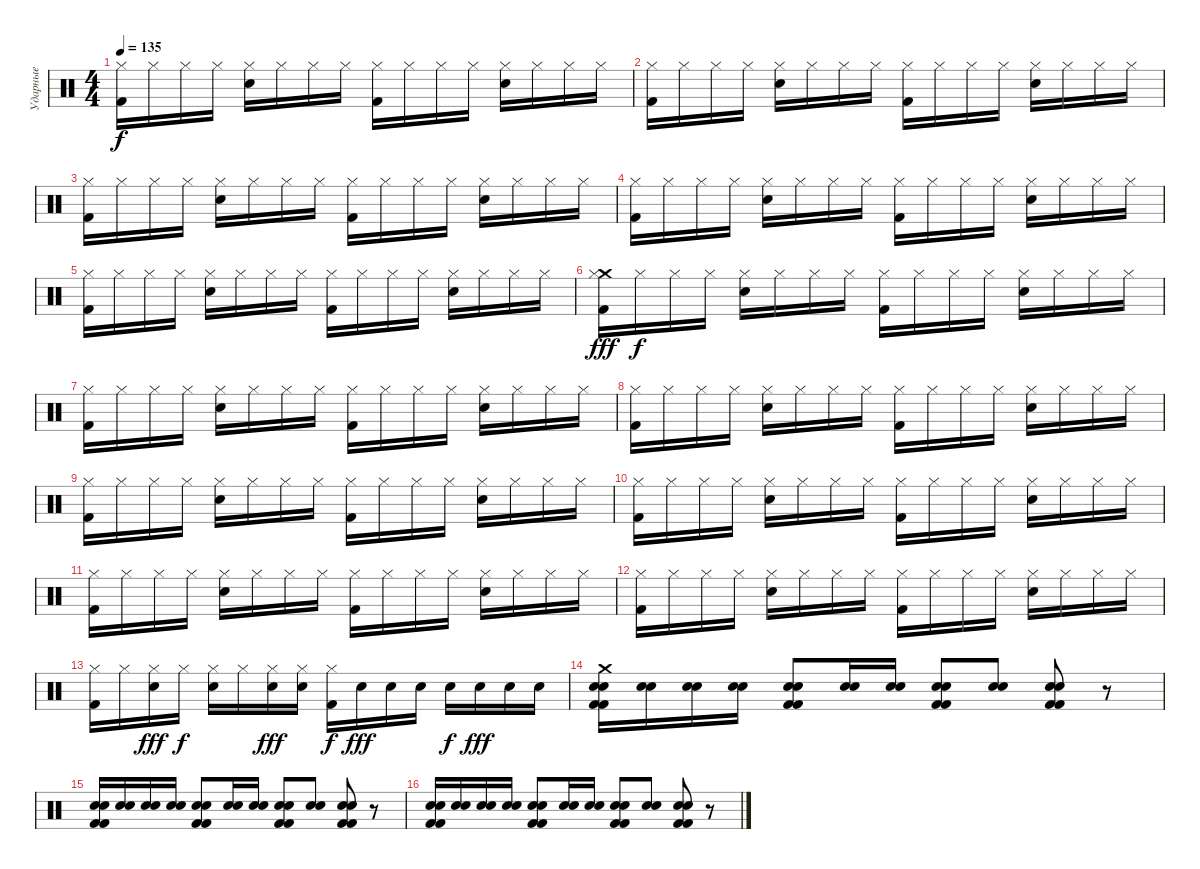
\track ("Ударные" "Ударные") {instrument percussion}
\staff {score}
\articulation defaults
\ts (4 4)
\tempo 135
\clef neutral
\ks c
("Hi-Hat (closed)" "Kick (hit) 2").16{dy f} "Hi-Hat (closed)".16 "Hi-Hat (closed)".16 "Hi-Hat (closed)".16 ("Hi-Hat (closed)" "Snare (hit) 2").16 "Hi-Hat (closed)".16 "Hi-Hat (closed)".16 "Hi-Hat (closed)".16 ("Hi-Hat (closed)" "Kick (hit) 2").16 "Hi-Hat (closed)".16 "Hi-Hat (closed)".16 "Hi-Hat (closed)".16 ("Hi-Hat (closed)" "Snare (hit) 2").16 "Hi-Hat (closed)".16 "Hi-Hat (closed)".16 "Hi-Hat (closed)".16 |
("Hi-Hat (closed)" "Kick (hit) 2").16 "Hi-Hat (closed)".16 "Hi-Hat (closed)".16 "Hi-Hat (closed)".16 ("Hi-Hat (closed)" "Snare (hit) 2").16 "Hi-Hat (closed)".16 "Hi-Hat (closed)".16 "Hi-Hat (closed)".16 ("Hi-Hat (closed)" "Kick (hit) 2").16 "Hi-Hat (closed)".16 "Hi-Hat (closed)".16 "Hi-Hat (closed)".16 ("Hi-Hat (closed)" "Snare (hit) 2").16 "Hi-Hat (closed)".16 "Hi-Hat (closed)".16 "Hi-Hat (closed)".16 |
("Hi-Hat (closed)" "Kick (hit) 2").16 "Hi-Hat (closed)".16 "Hi-Hat (closed)".16 "Hi-Hat (closed)".16 ("Hi-Hat (closed)" "Snare (hit) 2").16 "Hi-Hat (closed)".16 "Hi-Hat (closed)".16 "Hi-Hat (closed)".16 ("Hi-Hat (closed)" "Kick (hit) 2").16 "Hi-Hat (closed)".16 "Hi-Hat (closed)".16 "Hi-Hat (closed)".16 ("Hi-Hat (closed)" "Snare (hit) 2").16 "Hi-Hat (closed)".16 "Hi-Hat (closed)".16 "Hi-Hat (closed)".16 |
("Hi-Hat (closed)" "Kick (hit) 2").16 "Hi-Hat (closed)".16 "Hi-Hat (closed)".16 "Hi-Hat (closed)".16 ("Hi-Hat (closed)" "Snare (hit) 2").16 "Hi-Hat (closed)".16 "Hi-Hat (closed)".16 "Hi-Hat (closed)".16 ("Hi-Hat (closed)" "Kick (hit) 2").16 "Hi-Hat (closed)".16 "Hi-Hat (closed)".16 "Hi-Hat (closed)".16 ("Hi-Hat (closed)" "Snare (hit) 2").16 "Hi-Hat (closed)".16 "Hi-Hat (closed)".16 "Hi-Hat (closed)".16 |
("Hi-Hat (closed)" "Kick (hit) 2").16 "Hi-Hat (closed)".16 "Hi-Hat (closed)".16 "Hi-Hat (closed)".16 ("Hi-Hat (closed)" "Snare (hit) 2").16 "Hi-Hat (closed)".16 "Hi-Hat (closed)".16 "Hi-Hat (closed)".16 ("Hi-Hat (closed)" "Kick (hit) 2").16 "Hi-Hat (closed)".16 "Hi-Hat (closed)".16 "Hi-Hat (closed)".16 ("Hi-Hat (closed)" "Snare (hit) 2").16 "Hi-Hat (closed)".16 "Hi-Hat (closed)".16 "Hi-Hat (closed)".16 |
("Crash medium (hit)" "Hi-Hat (closed)" "Kick (hit) 2").16{dy fff} "Hi-Hat (closed)".16{dy f} "Hi-Hat (closed)".16 "Hi-Hat (closed)".16 ("Hi-Hat (closed)" "Snare (hit) 2").16 "Hi-Hat (closed)".16 "Hi-Hat (closed)".16 "Hi-Hat (closed)".16 ("Hi-Hat (closed)" "Kick (hit) 2").16 "Hi-Hat (closed)".16 "Hi-Hat (closed)".16 "Hi-Hat (closed)".16 ("Hi-Hat (closed)" "Snare (hit) 2").16 "Hi-Hat (closed)".16 "Hi-Hat (closed)".16 "Hi-Hat (closed)".16 |
("Hi-Hat (closed)" "Kick (hit) 2").16 "Hi-Hat (closed)".16 "Hi-Hat (closed)".16 "Hi-Hat (closed)".16 ("Hi-Hat (closed)" "Snare (hit) 2").16 "Hi-Hat (closed)".16 "Hi-Hat (closed)".16 "Hi-Hat (closed)".16 ("Hi-Hat (closed)" "Kick (hit) 2").16 "Hi-Hat (closed)".16 "Hi-Hat (closed)".16 "Hi-Hat (closed)".16 ("Hi-Hat (closed)" "Snare (hit) 2").16 "Hi-Hat (closed)".16 "Hi-Hat (closed)".16 "Hi-Hat (closed)".16 |
("Hi-Hat (closed)" "Kick (hit) 2").16 "Hi-Hat (closed)".16 "Hi-Hat (closed)".16 "Hi-Hat (closed)".16 ("Hi-Hat (closed)" "Snare (hit) 2").16 "Hi-Hat (closed)".16 "Hi-Hat (closed)".16 "Hi-Hat (closed)".16 ("Hi-Hat (closed)" "Kick (hit) 2").16 "Hi-Hat (closed)".16 "Hi-Hat (closed)".16 "Hi-Hat (closed)".16 ("Hi-Hat (closed)" "Snare (hit) 2").16 "Hi-Hat (closed)".16 "Hi-Hat (closed)".16 "Hi-Hat (closed)".16 |
("Hi-Hat (closed)" "Kick (hit) 2").16 "Hi-Hat (closed)".16 "Hi-Hat (closed)".16 "Hi-Hat (closed)".16 ("Hi-Hat (closed)" "Snare (hit) 2").16 "Hi-Hat (closed)".16 "Hi-Hat (closed)".16 "Hi-Hat (closed)".16 ("Hi-Hat (closed)" "Kick (hit) 2").16 "Hi-Hat (closed)".16 "Hi-Hat (closed)".16 "Hi-Hat (closed)".16 ("Hi-Hat (closed)" "Snare (hit) 2").16 "Hi-Hat (closed)".16 "Hi-Hat (closed)".16 "Hi-Hat (closed)".16 |
("Hi-Hat (closed)" "Kick (hit) 2").16 "Hi-Hat (closed)".16 "Hi-Hat (closed)".16 "Hi-Hat (closed)".16 ("Hi-Hat (closed)" "Snare (hit) 2").16 "Hi-Hat (closed)".16 "Hi-Hat (closed)".16 "Hi-Hat (closed)".16 ("Hi-Hat (closed)" "Kick (hit) 2").16 "Hi-Hat (closed)".16 "Hi-Hat (closed)".16 "Hi-Hat (closed)".16 ("Hi-Hat (closed)" "Snare (hit) 2").16 "Hi-Hat (closed)".16 "Hi-Hat (closed)".16 "Hi-Hat (closed)".16 |
("Hi-Hat (closed)" "Kick (hit) 2").16 "Hi-Hat (closed)".16 "Hi-Hat (closed)".16 "Hi-Hat (closed)".16 ("Hi-Hat (closed)" "Snare (hit) 2").16 "Hi-Hat (closed)".16 "Hi-Hat (closed)".16 "Hi-Hat (closed)".16 ("Hi-Hat (closed)" "Kick (hit) 2").16 "Hi-Hat (closed)".16 "Hi-Hat (closed)".16 "Hi-Hat (closed)".16 ("Hi-Hat (closed)" "Snare (hit) 2").16 "Hi-Hat (closed)".16 "Hi-Hat (closed)".16 "Hi-Hat (closed)".16 |
("Hi-Hat (closed)" "Kick (hit) 2").16 "Hi-Hat (closed)".16 "Hi-Hat (closed)".16 "Hi-Hat (closed)".16 ("Hi-Hat (closed)" "Snare (hit) 2").16 "Hi-Hat (closed)".16 "Hi-Hat (closed)".16 "Hi-Hat (closed)".16 ("Hi-Hat (closed)" "Kick (hit) 2").16 "Hi-Hat (closed)".16 "Hi-Hat (closed)".16 "Hi-Hat (closed)".16 ("Hi-Hat (closed)" "Snare (hit) 2").16 "Hi-Hat (closed)".16 "Hi-Hat (closed)".16 "Hi-Hat (closed)".16 |
("Hi-Hat (closed)" "Kick (hit) 2").16 "Hi-Hat (closed)".16 ("Hi-Hat (closed)" "Snare (hit) 2").16{dy fff} "Hi-Hat (closed)".16{dy f} ("Hi-Hat (closed)" "Snare (hit) 2").16 "Hi-Hat (closed)".16 ("Hi-Hat (closed)" "Snare (hit) 2").16{dy fff} ("Hi-Hat (closed)" "Snare (hit) 2").16 ("Hi-Hat (closed)" "Kick (hit) 2").16{dy f} "Snare (hit) 2".16{dy fff} "Snare (hit) 2".16 "Snare (hit) 2".16 "Snare (hit) 2".16{dy f} "Snare (hit) 2".16{dy fff} "Snare (hit) 2".16 "Snare (hit) 2".16 |
("Crash medium (hit)" "Snare (hit) 2" "Snare (hit) 2" "Kick (hit) 2" "Kick (hit) 2").16 ("Snare (hit) 2" "Snare (hit) 2").16 ("Snare (hit) 2" "Snare (hit) 2").16 ("Snare (hit) 2" "Snare (hit) 2").16 ("Snare (hit) 2" "Snare (hit) 2" "Kick (hit) 2" "Kick (hit) 2").8 ("Snare (hit) 2" "Snare (hit) 2").16 ("Snare (hit) 2" "Snare (hit) 2").16 ("Snare (hit) 2" "Snare (hit) 2" "Kick (hit) 2" "Kick (hit) 2").8 ("Snare (hit) 2" "Snare (hit) 2").8 ("Snare (hit) 2" "Snare (hit) 2" "Kick (hit) 2" "Kick (hit) 2").8 r.8 |
("Snare (hit) 2" "Snare (hit) 2" "Kick (hit) 2" "Kick (hit) 2").16 ("Snare (hit) 2" "Snare (hit) 2").16 ("Snare (hit) 2" "Snare (hit) 2").16 ("Snare (hit) 2" "Snare (hit) 2").16 ("Snare (hit) 2" "Snare (hit) 2" "Kick (hit) 2" "Kick (hit) 2").8 ("Snare (hit) 2" "Snare (hit) 2").16 ("Snare (hit) 2" "Snare (hit) 2").16 ("Snare (hit) 2" "Snare (hit) 2" "Kick (hit) 2" "Kick (hit) 2").8 ("Snare (hit) 2" "Snare (hit) 2").8 ("Snare (hit) 2" "Snare (hit) 2" "Kick (hit) 2" "Kick (hit) 2").8 r.8 |
("Snare (hit) 2" "Snare (hit) 2" "Kick (hit) 2" "Kick (hit) 2").16 ("Snare (hit) 2" "Snare (hit) 2").16 ("Snare (hit) 2" "Snare (hit) 2").16 ("Snare (hit) 2" "Snare (hit) 2").16 ("Snare (hit) 2" "Snare (hit) 2" "Kick (hit) 2" "Kick (hit) 2").8 ("Snare (hit) 2" "Snare (hit) 2").16 ("Snare (hit) 2" "Snare (hit) 2").16 ("Snare (hit) 2" "Snare (hit) 2" "Kick (hit) 2" "Kick (hit) 2").8 ("Snare (hit) 2" "Snare (hit) 2").8 ("Snare (hit) 2" "Snare (hit) 2" "Kick (hit) 2" "Kick (hit) 2").8 r.8
